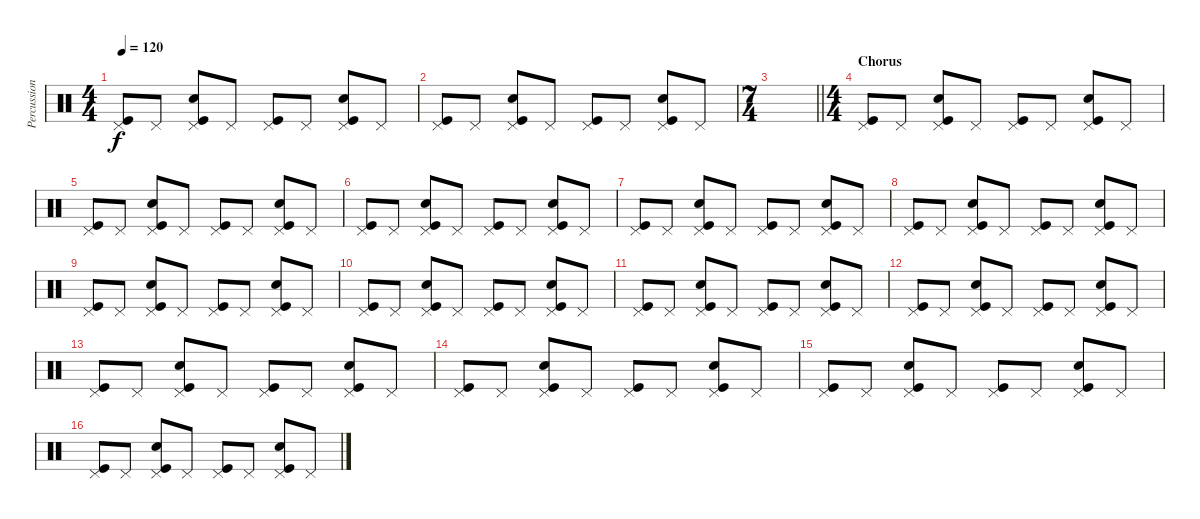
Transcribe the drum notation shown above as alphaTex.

\track ("Percussion" "Percussion") {instrument percussion}
\staff {score}
\articulation defaults
\ts (4 4)
\tempo 120
\clef neutral
\ks c
("Pedal Hi-Hat (hit)" "Kick (hit)").8{dy f} "Pedal Hi-Hat (hit)".8 ("Pedal Hi-Hat (hit)" "Electric Snare (hit)" "Kick (hit)").8 "Pedal Hi-Hat (hit)".8 ("Pedal Hi-Hat (hit)" "Kick (hit)").8 "Pedal Hi-Hat (hit)".8 ("Pedal Hi-Hat (hit)" "Electric Snare (hit)" "Kick (hit)").8 "Pedal Hi-Hat (hit)".8 |
("Pedal Hi-Hat (hit)" "Kick (hit)").8 "Pedal Hi-Hat (hit)".8 ("Pedal Hi-Hat (hit)" "Electric Snare (hit)" "Kick (hit)").8 "Pedal Hi-Hat (hit)".8 ("Pedal Hi-Hat (hit)" "Kick (hit)").8 "Pedal Hi-Hat (hit)".8 ("Pedal Hi-Hat (hit)" "Electric Snare (hit)" "Kick (hit)").8 "Pedal Hi-Hat (hit)".8 |
\ts (7 4)
\barLineRight lightlight
|
\ts (4 4)
\section ("" "Chorus")
("Pedal Hi-Hat (hit)" "Kick (hit)").8 "Pedal Hi-Hat (hit)".8 ("Pedal Hi-Hat (hit)" "Electric Snare (hit)" "Kick (hit)").8 "Pedal Hi-Hat (hit)".8 ("Pedal Hi-Hat (hit)" "Kick (hit)").8 "Pedal Hi-Hat (hit)".8 ("Pedal Hi-Hat (hit)" "Electric Snare (hit)" "Kick (hit)").8 "Pedal Hi-Hat (hit)".8 |
("Pedal Hi-Hat (hit)" "Kick (hit)").8 "Pedal Hi-Hat (hit)".8 ("Pedal Hi-Hat (hit)" "Electric Snare (hit)" "Kick (hit)").8 "Pedal Hi-Hat (hit)".8 ("Pedal Hi-Hat (hit)" "Kick (hit)").8 "Pedal Hi-Hat (hit)".8 ("Pedal Hi-Hat (hit)" "Electric Snare (hit)" "Kick (hit)").8 "Pedal Hi-Hat (hit)".8 |
("Pedal Hi-Hat (hit)" "Kick (hit)").8 "Pedal Hi-Hat (hit)".8 ("Pedal Hi-Hat (hit)" "Electric Snare (hit)" "Kick (hit)").8 "Pedal Hi-Hat (hit)".8 ("Pedal Hi-Hat (hit)" "Kick (hit)").8 "Pedal Hi-Hat (hit)".8 ("Pedal Hi-Hat (hit)" "Electric Snare (hit)" "Kick (hit)").8 "Pedal Hi-Hat (hit)".8 |
("Pedal Hi-Hat (hit)" "Kick (hit)").8 "Pedal Hi-Hat (hit)".8 ("Pedal Hi-Hat (hit)" "Electric Snare (hit)" "Kick (hit)").8 "Pedal Hi-Hat (hit)".8 ("Pedal Hi-Hat (hit)" "Kick (hit)").8 "Pedal Hi-Hat (hit)".8 ("Pedal Hi-Hat (hit)" "Electric Snare (hit)" "Kick (hit)").8 "Pedal Hi-Hat (hit)".8 |
("Pedal Hi-Hat (hit)" "Kick (hit)").8 "Pedal Hi-Hat (hit)".8 ("Pedal Hi-Hat (hit)" "Electric Snare (hit)" "Kick (hit)").8 "Pedal Hi-Hat (hit)".8 ("Pedal Hi-Hat (hit)" "Kick (hit)").8 "Pedal Hi-Hat (hit)".8 ("Pedal Hi-Hat (hit)" "Electric Snare (hit)" "Kick (hit)").8 "Pedal Hi-Hat (hit)".8 |
("Pedal Hi-Hat (hit)" "Kick (hit)").8 "Pedal Hi-Hat (hit)".8 ("Pedal Hi-Hat (hit)" "Electric Snare (hit)" "Kick (hit)").8 "Pedal Hi-Hat (hit)".8 ("Pedal Hi-Hat (hit)" "Kick (hit)").8 "Pedal Hi-Hat (hit)".8 ("Pedal Hi-Hat (hit)" "Electric Snare (hit)" "Kick (hit)").8 "Pedal Hi-Hat (hit)".8 |
("Pedal Hi-Hat (hit)" "Kick (hit)").8 "Pedal Hi-Hat (hit)".8 ("Pedal Hi-Hat (hit)" "Electric Snare (hit)" "Kick (hit)").8 "Pedal Hi-Hat (hit)".8 ("Pedal Hi-Hat (hit)" "Kick (hit)").8 "Pedal Hi-Hat (hit)".8 ("Pedal Hi-Hat (hit)" "Electric Snare (hit)" "Kick (hit)").8 "Pedal Hi-Hat (hit)".8 |
("Pedal Hi-Hat (hit)" "Kick (hit)").8 "Pedal Hi-Hat (hit)".8 ("Pedal Hi-Hat (hit)" "Electric Snare (hit)" "Kick (hit)").8 "Pedal Hi-Hat (hit)".8 ("Pedal Hi-Hat (hit)" "Kick (hit)").8 "Pedal Hi-Hat (hit)".8 ("Pedal Hi-Hat (hit)" "Electric Snare (hit)" "Kick (hit)").8 "Pedal Hi-Hat (hit)".8 |
("Pedal Hi-Hat (hit)" "Kick (hit)").8 "Pedal Hi-Hat (hit)".8 ("Pedal Hi-Hat (hit)" "Electric Snare (hit)" "Kick (hit)").8 "Pedal Hi-Hat (hit)".8 ("Pedal Hi-Hat (hit)" "Kick (hit)").8 "Pedal Hi-Hat (hit)".8 ("Pedal Hi-Hat (hit)" "Electric Snare (hit)" "Kick (hit)").8 "Pedal Hi-Hat (hit)".8 |
("Pedal Hi-Hat (hit)" "Kick (hit)").8 "Pedal Hi-Hat (hit)".8 ("Pedal Hi-Hat (hit)" "Electric Snare (hit)" "Kick (hit)").8 "Pedal Hi-Hat (hit)".8 ("Pedal Hi-Hat (hit)" "Kick (hit)").8 "Pedal Hi-Hat (hit)".8 ("Pedal Hi-Hat (hit)" "Electric Snare (hit)" "Kick (hit)").8 "Pedal Hi-Hat (hit)".8 |
("Pedal Hi-Hat (hit)" "Kick (hit)").8 "Pedal Hi-Hat (hit)".8 ("Pedal Hi-Hat (hit)" "Electric Snare (hit)" "Kick (hit)").8 "Pedal Hi-Hat (hit)".8 ("Pedal Hi-Hat (hit)" "Kick (hit)").8 "Pedal Hi-Hat (hit)".8 ("Pedal Hi-Hat (hit)" "Electric Snare (hit)" "Kick (hit)").8 "Pedal Hi-Hat (hit)".8 |
("Pedal Hi-Hat (hit)" "Kick (hit)").8 "Pedal Hi-Hat (hit)".8 ("Pedal Hi-Hat (hit)" "Electric Snare (hit)" "Kick (hit)").8 "Pedal Hi-Hat (hit)".8 ("Pedal Hi-Hat (hit)" "Kick (hit)").8 "Pedal Hi-Hat (hit)".8 ("Pedal Hi-Hat (hit)" "Electric Snare (hit)" "Kick (hit)").8 "Pedal Hi-Hat (hit)".8 |
("Pedal Hi-Hat (hit)" "Kick (hit)").8 "Pedal Hi-Hat (hit)".8 ("Pedal Hi-Hat (hit)" "Electric Snare (hit)" "Kick (hit)").8 "Pedal Hi-Hat (hit)".8 ("Pedal Hi-Hat (hit)" "Kick (hit)").8 "Pedal Hi-Hat (hit)".8 ("Pedal Hi-Hat (hit)" "Electric Snare (hit)" "Kick (hit)").8 "Pedal Hi-Hat (hit)".8
